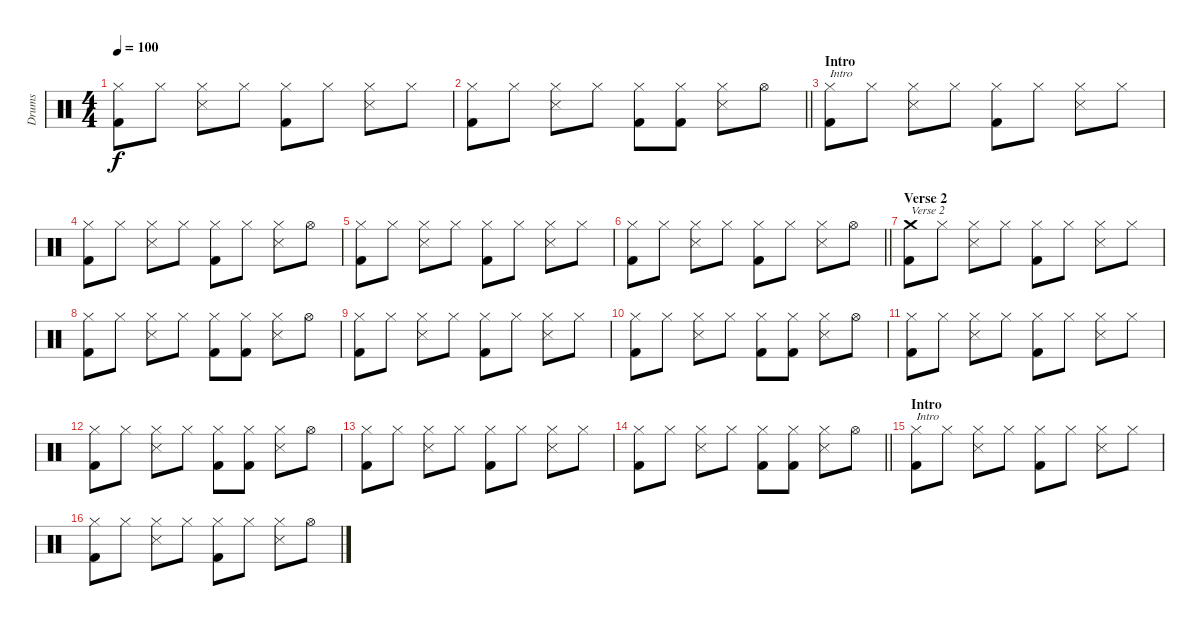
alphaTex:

\track ("Drums" "Drums") {instrument percussion}
\staff {score}
\articulation defaults
\ts (4 4)
\tempo 100
\clef neutral
\ks c
("Kick (hit) 2" "Hi-Hat (closed)").8{dy f} "Hi-Hat (closed)".8 ("Snare (side stick) 3" "Hi-Hat (closed)").8 "Hi-Hat (closed)".8 ("Kick (hit) 2" "Hi-Hat (closed)").8 "Hi-Hat (closed)".8 ("Snare (side stick) 3" "Hi-Hat (closed)").8 "Hi-Hat (closed)".8 |
\barLineRight lightlight
("Kick (hit) 2" "Hi-Hat (closed)").8 "Hi-Hat (closed)".8 ("Snare (side stick) 3" "Hi-Hat (closed)").8 "Hi-Hat (closed)".8 ("Kick (hit) 2" "Hi-Hat (closed)").8 ("Kick (hit) 2" "Hi-Hat (closed)").8 ("Snare (side stick) 3" "Hi-Hat (closed)").8 "Hi-Hat (open)".8 |
\section ("" "Intro")
("Kick (hit) 2" "Hi-Hat (closed)").8{txt "Intro"} "Hi-Hat (closed)".8 ("Snare (side stick) 3" "Hi-Hat (closed)").8 "Hi-Hat (closed)".8 ("Kick (hit) 2" "Hi-Hat (closed)").8 "Hi-Hat (closed)".8 ("Snare (side stick) 3" "Hi-Hat (closed)").8 "Hi-Hat (closed)".8 |
("Kick (hit) 2" "Hi-Hat (closed)").8 "Hi-Hat (closed)".8 ("Snare (side stick) 3" "Hi-Hat (closed)").8 "Hi-Hat (closed)".8 ("Kick (hit) 2" "Hi-Hat (closed)").8 "Hi-Hat (closed)".8 ("Snare (side stick) 3" "Hi-Hat (closed)").8 "Hi-Hat (open)".8 |
("Kick (hit) 2" "Hi-Hat (closed)").8 "Hi-Hat (closed)".8 ("Snare (side stick) 3" "Hi-Hat (closed)").8 "Hi-Hat (closed)".8 ("Kick (hit) 2" "Hi-Hat (closed)").8 "Hi-Hat (closed)".8 ("Snare (side stick) 3" "Hi-Hat (closed)").8 "Hi-Hat (closed)".8 |
\barLineRight lightlight
("Kick (hit) 2" "Hi-Hat (closed)").8 "Hi-Hat (closed)".8 ("Snare (side stick) 3" "Hi-Hat (closed)").8 "Hi-Hat (closed)".8 ("Kick (hit) 2" "Hi-Hat (closed)").8 "Hi-Hat (closed)".8 ("Snare (side stick) 3" "Hi-Hat (closed)").8 "Hi-Hat (open)".8 |
\section ("" "Verse 2")
("Kick (hit) 2" "Crash medium (hit)").8{txt "Verse 2"} "Hi-Hat (closed)".8 ("Snare (side stick) 3" "Hi-Hat (closed)").8 "Hi-Hat (closed)".8 ("Kick (hit) 2" "Hi-Hat (closed)").8 "Hi-Hat (closed)".8 ("Snare (side stick) 3" "Hi-Hat (closed)").8 "Hi-Hat (closed)".8 |
("Kick (hit) 2" "Hi-Hat (closed)").8 "Hi-Hat (closed)".8 ("Snare (side stick) 3" "Hi-Hat (closed)").8 "Hi-Hat (closed)".8 ("Kick (hit) 2" "Hi-Hat (closed)").8 ("Kick (hit) 2" "Hi-Hat (closed)").8 ("Snare (side stick) 3" "Hi-Hat (closed)").8 "Hi-Hat (open)".8 |
("Kick (hit) 2" "Hi-Hat (closed)").8 "Hi-Hat (closed)".8 ("Snare (side stick) 3" "Hi-Hat (closed)").8 "Hi-Hat (closed)".8 ("Kick (hit) 2" "Hi-Hat (closed)").8 "Hi-Hat (closed)".8 ("Snare (side stick) 3" "Hi-Hat (closed)").8 "Hi-Hat (closed)".8 |
("Kick (hit) 2" "Hi-Hat (closed)").8 "Hi-Hat (closed)".8 ("Snare (side stick) 3" "Hi-Hat (closed)").8 "Hi-Hat (closed)".8 ("Kick (hit) 2" "Hi-Hat (closed)").8 ("Kick (hit) 2" "Hi-Hat (closed)").8 ("Snare (side stick) 3" "Hi-Hat (closed)").8 "Hi-Hat (open)".8 |
("Kick (hit) 2" "Hi-Hat (closed)").8 "Hi-Hat (closed)".8 ("Snare (side stick) 3" "Hi-Hat (closed)").8 "Hi-Hat (closed)".8 ("Kick (hit) 2" "Hi-Hat (closed)").8 "Hi-Hat (closed)".8 ("Snare (side stick) 3" "Hi-Hat (closed)").8 "Hi-Hat (closed)".8 |
("Kick (hit) 2" "Hi-Hat (closed)").8 "Hi-Hat (closed)".8 ("Snare (side stick) 3" "Hi-Hat (closed)").8 "Hi-Hat (closed)".8 ("Kick (hit) 2" "Hi-Hat (closed)").8 ("Kick (hit) 2" "Hi-Hat (closed)").8 ("Snare (side stick) 3" "Hi-Hat (closed)").8 "Hi-Hat (open)".8 |
("Kick (hit) 2" "Hi-Hat (closed)").8 "Hi-Hat (closed)".8 ("Snare (side stick) 3" "Hi-Hat (closed)").8 "Hi-Hat (closed)".8 ("Kick (hit) 2" "Hi-Hat (closed)").8 "Hi-Hat (closed)".8 ("Snare (side stick) 3" "Hi-Hat (closed)").8 "Hi-Hat (closed)".8 |
\barLineRight lightlight
("Kick (hit) 2" "Hi-Hat (closed)").8 "Hi-Hat (closed)".8 ("Snare (side stick) 3" "Hi-Hat (closed)").8 "Hi-Hat (closed)".8 ("Kick (hit) 2" "Hi-Hat (closed)").8 ("Kick (hit) 2" "Hi-Hat (closed)").8 ("Snare (side stick) 3" "Hi-Hat (closed)").8 "Hi-Hat (open)".8 |
\section ("" "Intro")
("Kick (hit) 2" "Hi-Hat (closed)").8{txt "Intro"} "Hi-Hat (closed)".8 ("Snare (side stick) 3" "Hi-Hat (closed)").8 "Hi-Hat (closed)".8 ("Kick (hit) 2" "Hi-Hat (closed)").8 "Hi-Hat (closed)".8 ("Snare (side stick) 3" "Hi-Hat (closed)").8 "Hi-Hat (closed)".8 |
("Kick (hit) 2" "Hi-Hat (closed)").8 "Hi-Hat (closed)".8 ("Snare (side stick) 3" "Hi-Hat (closed)").8 "Hi-Hat (closed)".8 ("Kick (hit) 2" "Hi-Hat (closed)").8 "Hi-Hat (closed)".8 ("Snare (side stick) 3" "Hi-Hat (closed)").8 "Hi-Hat (open)".8
